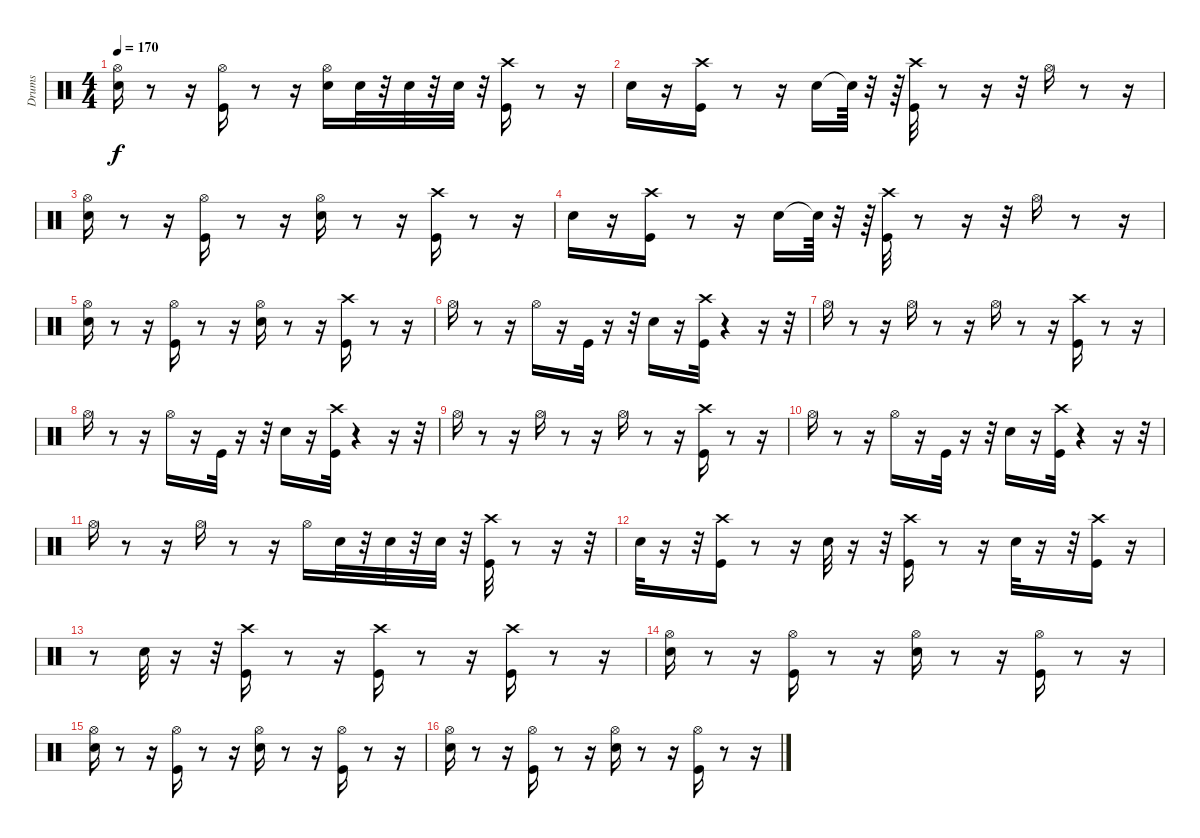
\track ("Drums" "Drums") {instrument percussion}
\staff {score}
\articulation defaults
\ts (4 4)
\tempo 170
\clef neutral
\ks c
("Snare (hit) 2" "Hi-Hat (open)").16{dy f} r.8 r.16 ("Kick (hit)" "Hi-Hat (open)").16 r.8 r.16 ("Snare (hit) 2" "Hi-Hat (open)").16 "Snare (hit) 2".32 r.32 "Electric Snare (hit)".32 r.32 "Electric Snare (hit)".32 r.32 ("Crash high (hit)" "Kick (hit)").16 r.8 r.16 |
"Snare (hit) 2".16 r.16 ("Kick (hit)" "Crash high (hit)").16 r.8 r.16 "Snare (hit) 2".16 "Snare (hit)"{t}.64 r.32 r.64 ("Kick (hit)" "Crash high (hit)").32 r.8 r.16 r.32 "Hi-Hat (open)".16 r.8 r.16 |
("Hi-Hat (open)" "Snare (hit) 2").16 r.8 r.16 ("Hi-Hat (open)" "Kick (hit)").16 r.8 r.16 ("Hi-Hat (open)" "Snare (hit) 2").16 r.8 r.16 ("Kick (hit)" "Crash high (hit)").16 r.8 r.16 |
"Snare (hit) 2".16 r.16 ("Kick (hit)" "Crash high (hit)").16 r.8 r.16 "Snare (hit) 2".16 "Snare (hit)"{t}.64 r.32 r.64 ("Kick (hit)" "Crash high (hit)").32 r.8 r.16 r.32 "Hi-Hat (open)".16 r.8 r.16 |
("Hi-Hat (open)" "Snare (hit) 2").16 r.8 r.16 ("Hi-Hat (open)" "Kick (hit)").16 r.8 r.16 ("Hi-Hat (open)" "Snare (hit) 2").16 r.8 r.16 ("Kick (hit)" "Crash high (hit)").16 r.8 r.16 |
"Hi-Hat (open)".16 r.8 r.16 "Hi-Hat (open)".16 r.16 "Kick (hit)".32 r.16 r.32 "Snare (hit) 2".16 r.16 ("Kick (hit)" "Crash high (hit)").32 r.4 r.16 r.32 |
"Hi-Hat (open)".16 r.8 r.16 "Hi-Hat (open)".16 r.8 r.16 "Hi-Hat (open)".16 r.8 r.16 ("Kick (hit)" "Crash high (hit)").16 r.8 r.16 |
"Hi-Hat (open)".16 r.8 r.16 "Hi-Hat (open)".16 r.16 "Kick (hit)".32 r.16 r.32 "Snare (hit) 2".16 r.16 ("Kick (hit)" "Crash high (hit)").32 r.4 r.16 r.32 |
"Hi-Hat (open)".16 r.8 r.16 "Hi-Hat (open)".16 r.8 r.16 "Hi-Hat (open)".16 r.8 r.16 ("Kick (hit)" "Crash high (hit)").16 r.8 r.16 |
"Hi-Hat (open)".16 r.8 r.16 "Hi-Hat (open)".16 r.16 "Kick (hit)".32 r.16 r.32 "Snare (hit) 2".16 r.16 ("Kick (hit)" "Crash high (hit)").32 r.4 r.16 r.32 |
"Hi-Hat (open)".16 r.8 r.16 "Hi-Hat (open)".16 r.8 r.16 "Hi-Hat (open)".16 "Snare (hit) 2".32 r.32 "Snare (hit) 2".32 r.32 "Snare (hit) 2".32 r.32 ("Kick (hit)" "Crash high (hit)").32 r.8 r.16 r.32 |
"Snare (hit) 2".32 r.16 r.32 ("Kick (hit)" "Crash high (hit)").16 r.8 r.16 "Snare (hit) 2".32 r.16 r.32 ("Kick (hit)" "Crash high (hit)").16 r.8 r.16 "Snare (hit) 2".32 r.16 r.32 ("Kick (hit)" "Crash high (hit)").16 r.16 |
r.8 "Snare (hit) 2".32 r.16 r.32 ("Kick (hit)" "Crash high (hit)").16 r.8 r.16 ("Kick (hit)" "Crash high (hit)").16 r.8 r.16 ("Kick (hit)" "Crash high (hit)").16 r.8 r.16 |
("Snare (hit) 2" "Hi-Hat (open)").16 r.8 r.16 ("Kick (hit)" "Hi-Hat (open)").16 r.8 r.16 ("Snare (hit) 2" "Hi-Hat (open)").16 r.8 r.16 ("Kick (hit)" "Hi-Hat (open)").16 r.8 r.16 |
("Snare (hit) 2" "Hi-Hat (open)").16 r.8 r.16 ("Kick (hit)" "Hi-Hat (open)").16 r.8 r.16 ("Snare (hit) 2" "Hi-Hat (open)").16 r.8 r.16 ("Kick (hit)" "Hi-Hat (open)").16 r.8 r.16 |
("Snare (hit) 2" "Hi-Hat (open)").16 r.8 r.16 ("Kick (hit)" "Hi-Hat (open)").16 r.8 r.16 ("Snare (hit) 2" "Hi-Hat (open)").16 r.8 r.16 ("Kick (hit)" "Hi-Hat (open)").16 r.8 r.16
